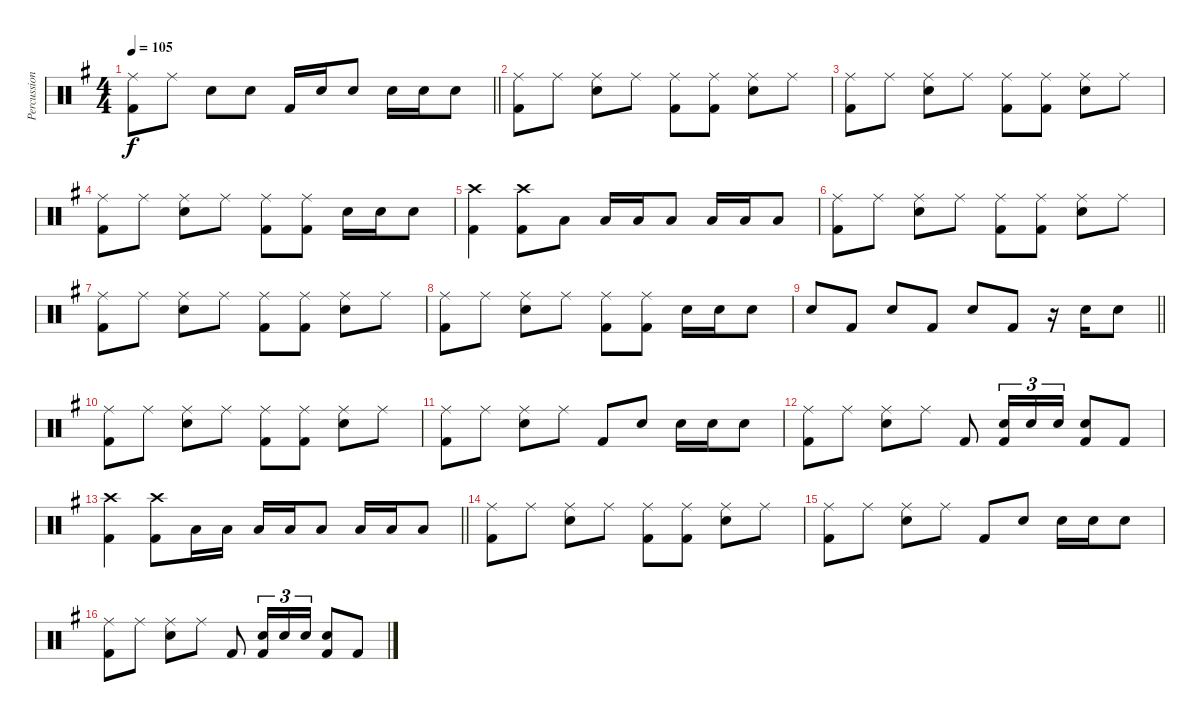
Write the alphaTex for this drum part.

\track ("Percussion" "Percussion") {instrument percussion}
\staff {score}
\articulation defaults
\ts (4 4)
\tempo 105
\clef neutral
\barLineRight lightlight
\ks g
("Ride (middle)" "Kick (hit) 2").8{dy f} "Ride (middle)".8 "Snare (hit) 2".8 "Snare (hit) 2".8 "Kick (hit) 2".16 "Snare (hit) 2".16 "Snare (hit) 2".8 "Snare (hit) 2".16 "Snare (hit) 2".16 "Snare (hit) 2".8 |
("Ride (middle)" "Kick (hit) 2").8 "Ride (middle)".8 ("Ride (middle)" "Snare (hit) 2").8 "Ride (middle)".8 ("Ride (middle)" "Kick (hit) 2").8 ("Ride (middle)" "Kick (hit) 2").8 ("Ride (middle)" "Snare (hit) 2").8 "Ride (middle)".8 |
("Ride (middle)" "Kick (hit) 2").8 "Ride (middle)".8 ("Ride (middle)" "Snare (hit) 2").8 "Ride (middle)".8 ("Ride (middle)" "Kick (hit) 2").8 ("Ride (middle)" "Kick (hit) 2").8 ("Ride (middle)" "Snare (hit) 2").8 "Ride (middle)".8 |
("Ride (middle)" "Kick (hit) 2").8 "Ride (middle)".8 ("Ride (middle)" "Snare (hit) 2").8 "Ride (middle)".8 ("Ride (middle)" "Kick (hit) 2").8 ("Ride (middle)" "Kick (hit) 2").8 "Snare (hit) 2".16 "Snare (hit) 2".16 "Snare (hit) 2".8 |
("Crash high (hit)" "Kick (hit) 2").4 ("Crash high (hit)" "Kick (hit) 2").8 "Low Floor Tom (hit)".8 "Low Floor Tom (hit)".16 "Low Floor Tom (hit)".16 "Low Floor Tom (hit)".8 "Low Floor Tom (hit)".16 "Low Floor Tom (hit)".16 "Low Floor Tom (hit)".8 |
("Ride (middle)" "Kick (hit) 2").8 "Ride (middle)".8 ("Ride (middle)" "Snare (hit) 2").8 "Ride (middle)".8 ("Ride (middle)" "Kick (hit) 2").8 ("Ride (middle)" "Kick (hit) 2").8 ("Ride (middle)" "Snare (hit) 2").8 "Ride (middle)".8 |
("Ride (middle)" "Kick (hit) 2").8 "Ride (middle)".8 ("Ride (middle)" "Snare (hit) 2").8 "Ride (middle)".8 ("Ride (middle)" "Kick (hit) 2").8 ("Ride (middle)" "Kick (hit) 2").8 ("Ride (middle)" "Snare (hit) 2").8 "Ride (middle)".8 |
("Ride (middle)" "Kick (hit) 2").8 "Ride (middle)".8 ("Ride (middle)" "Snare (hit) 2").8 "Ride (middle)".8 ("Ride (middle)" "Kick (hit) 2").8 ("Ride (middle)" "Kick (hit) 2").8 "Snare (hit) 2".16 "Snare (hit) 2".16 "Snare (hit) 2".8 |
\barLineRight lightlight "Snare (hit) 2".8 "Kick (hit) 2".8 "Snare (hit) 2".8 "Kick (hit) 2".8 "Snare (hit) 2".8 "Kick (hit) 2".8
r.16 "Snare (hit) 2".16 "Snare (hit) 2".8 |
("Ride (middle)" "Kick (hit) 2").8 "Ride (middle)".8 ("Ride (middle)" "Snare (hit) 2").8 "Ride (middle)".8 ("Ride (middle)" "Kick (hit) 2").8 ("Ride (middle)" "Kick (hit) 2").8 ("Ride (middle)" "Snare (hit) 2").8 "Ride (middle)".8 |
("Ride (middle)" "Kick (hit) 2").8 "Ride (middle)".8 ("Ride (middle)" "Snare (hit) 2").8 "Ride (middle)".8 "Kick (hit) 2".8 "Snare (hit) 2".8 "Snare (hit) 2".16 "Snare (hit) 2".16 "Snare (hit) 2".8 |
("Ride (middle)" "Kick (hit) 2").8 "Ride (middle)".8 ("Ride (middle)" "Snare (hit) 2").8 "Ride (middle)".8 "Kick (hit) 2".8 ("Snare (hit) 2" "Kick (hit) 2").16{tu (3 2)} "Snare (hit) 2".16{tu (3 2)} "Snare (hit) 2".16{tu (3 2)} ("Snare (hit) 2" "Kick (hit) 2").8 "Kick (hit) 2".8 |
\barLineRight lightlight
("Crash high (hit)" "Kick (hit) 2").4 ("Crash high (hit)" "Kick (hit) 2").8 "Low Floor Tom (hit)".16 "Low Floor Tom (hit)".16 "Low Floor Tom (hit)".16 "Low Floor Tom (hit)".16 "Low Floor Tom (hit)".8 "Low Floor Tom (hit)".16 "Low Floor Tom (hit)".16 "Low Floor Tom (hit)".8 |
("Ride (middle)" "Kick (hit) 2").8 "Ride (middle)".8 ("Ride (middle)" "Snare (hit) 2").8 "Ride (middle)".8 ("Ride (middle)" "Kick (hit) 2").8 ("Ride (middle)" "Kick (hit) 2").8 ("Ride (middle)" "Snare (hit) 2").8 "Ride (middle)".8 |
("Ride (middle)" "Kick (hit) 2").8 "Ride (middle)".8 ("Ride (middle)" "Snare (hit) 2").8 "Ride (middle)".8 "Kick (hit) 2".8 "Snare (hit) 2".8 "Snare (hit) 2".16 "Snare (hit) 2".16 "Snare (hit) 2".8 |
("Ride (middle)" "Kick (hit) 2").8 "Ride (middle)".8 ("Ride (middle)" "Snare (hit) 2").8 "Ride (middle)".8 "Kick (hit) 2".8 ("Snare (hit) 2" "Kick (hit) 2").16{tu (3 2)} "Snare (hit) 2".16{tu (3 2)} "Snare (hit) 2".16{tu (3 2)} ("Snare (hit) 2" "Kick (hit) 2").8 "Kick (hit) 2".8
